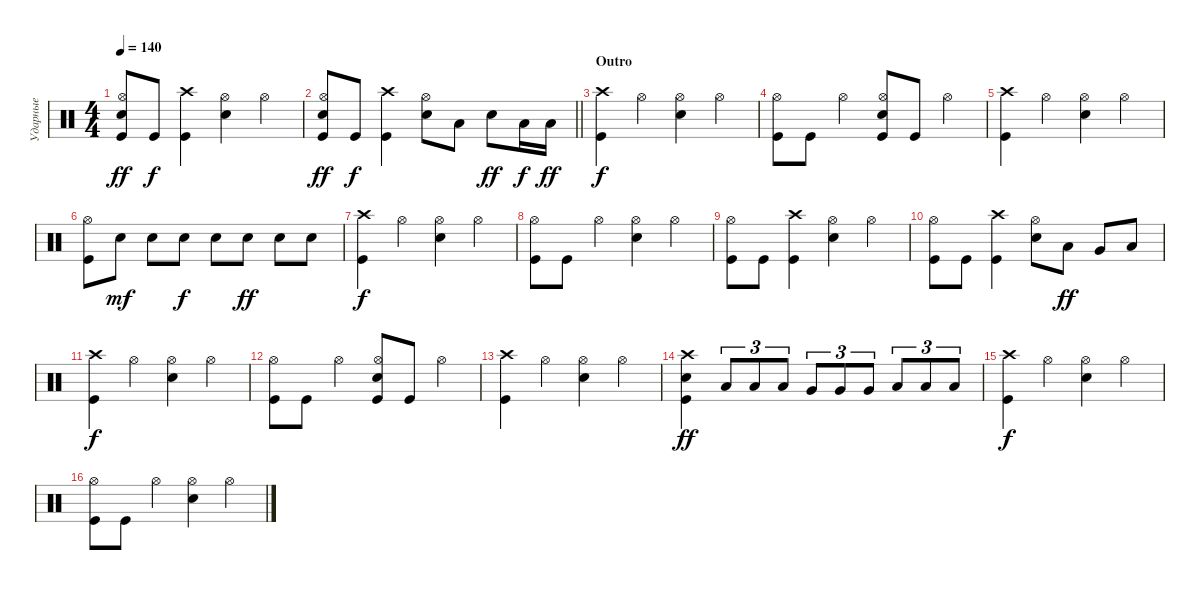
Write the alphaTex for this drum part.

\track ("Ударные" "Ударные") {instrument percussion}
\staff {score}
\articulation defaults
\ts (4 4)
\tempo 140
\clef neutral
\ks c
("Kick (hit)" "Hi-Hat (open)" "Snare (hit) 2").8{dy ff} "Kick (hit)".8{dy f} ("Kick (hit)" "Crash high (hit)").4 ("Snare (hit) 2" "Hi-Hat (open)").4 "Hi-Hat (open)".4 |
\barLineRight lightlight
("Kick (hit)" "Hi-Hat (open)" "Snare (hit) 2").8{dy ff} "Kick (hit)".8{dy f} ("Kick (hit)" "Crash high (hit)").4 ("Snare (hit) 2" "Hi-Hat (open)").8 "Low Tom (hit)".8 "Snare (hit) 2".8{dy ff} "Low Floor Tom (hit)".16{dy f} "Low Floor Tom (hit)".16{dy ff} |
\section ("" "Outro")
("Crash high (hit)" "Kick (hit)").4{dy f} "Hi-Hat (open)".4 ("Hi-Hat (open)" "Snare (hit) 2").4 "Hi-Hat (open)".4 |
("Hi-Hat (open)" "Kick (hit)").8 "Kick (hit)".8 "Hi-Hat (open)".4 ("Snare (hit) 2" "Kick (hit)" "Hi-Hat (open)").8 "Kick (hit)".8 "Hi-Hat (open)".4 |
("Crash high (hit)" "Kick (hit)").4 "Hi-Hat (open)".4 ("Hi-Hat (open)" "Snare (hit) 2").4 "Hi-Hat (open)".4 |
("Hi-Hat (open)" "Kick (hit)").8 "Snare (hit) 2".8{dy mf} "Snare (hit) 2".8 "Snare (hit) 2".8{dy f} "Snare (hit) 2".8 "Snare (hit) 2".8{dy ff} "Snare (hit) 2".8 "Snare (hit) 2".8 |
("Crash high (hit)" "Kick (hit)").4{dy f} "Hi-Hat (open)".4 ("Hi-Hat (open)" "Snare (hit) 2").4 "Hi-Hat (open)".4 |
("Hi-Hat (open)" "Kick (hit)").8 "Kick (hit)".8 "Hi-Hat (open)".4 ("Snare (hit) 2" "Hi-Hat (open)").4 "Hi-Hat (open)".4 |
("Kick (hit)" "Hi-Hat (open)").8 "Kick (hit)".8 ("Kick (hit)" "Crash high (hit)").4 ("Snare (hit) 2" "Hi-Hat (open)").4 "Hi-Hat (open)".4 |
("Kick (hit)" "Hi-Hat (open)").8 "Kick (hit)".8 ("Kick (hit)" "Crash high (hit)").4 ("Snare (hit) 2" "Hi-Hat (open)").8 "Low Tom (hit)".8{dy ff} "Very Low Tom (hit)".8 "Low Floor Tom (hit)".8 |
("Crash high (hit)" "Kick (hit)").4{dy f} "Hi-Hat (open)".4 ("Hi-Hat (open)" "Snare (hit) 2").4 "Hi-Hat (open)".4 |
("Hi-Hat (open)" "Kick (hit)").8 "Kick (hit)".8 "Hi-Hat (open)".4 ("Snare (hit) 2" "Kick (hit)" "Hi-Hat (open)").8 "Kick (hit)".8 "Hi-Hat (open)".4 |
("Crash high (hit)" "Kick (hit)").4 "Hi-Hat (open)".4 ("Hi-Hat (open)" "Snare (hit) 2").4 "Hi-Hat (open)".4 |
("Crash high (hit)" "Snare (hit) 2" "Kick (hit)").4{dy ff} "Low Tom (hit)".8{tu (3 2)} "Low Tom (hit)".8{tu (3 2)} "Low Tom (hit)".8{tu (3 2)} "Very Low Tom (hit)".8{tu (3 2)} "Very Low Tom (hit)".8{tu (3 2)} "Very Low Tom (hit)".8{tu (3 2)} "Low Floor Tom (hit)".8{tu (3 2)} "Low Floor Tom (hit)".8{tu (3 2)} "Low Floor Tom (hit)".8{tu (3 2)} |
("Crash high (hit)" "Kick (hit)").4{dy f} "Hi-Hat (open)".4 ("Hi-Hat (open)" "Snare (hit) 2").4 "Hi-Hat (open)".4 |
("Hi-Hat (open)" "Kick (hit)").8 "Kick (hit)".8 "Hi-Hat (open)".4 ("Snare (hit) 2" "Hi-Hat (open)").4 "Hi-Hat (open)".4
